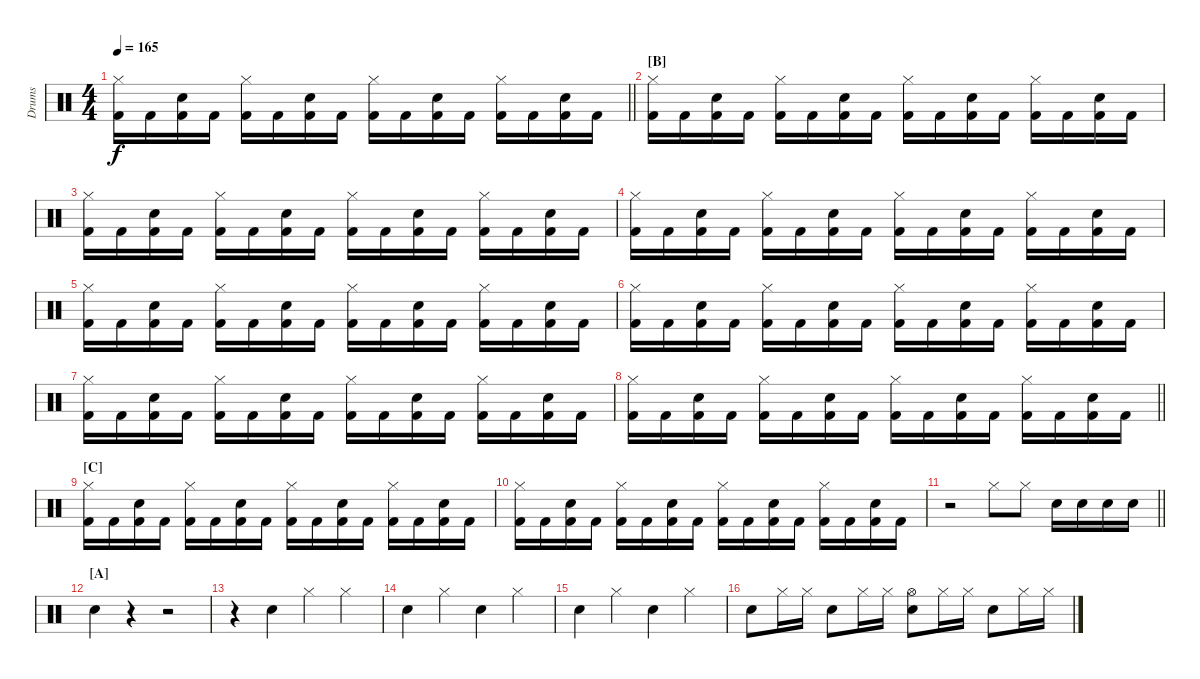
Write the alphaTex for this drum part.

\track ("Drums" "Drums") {instrument percussion}
\staff {score}
\articulation defaults
\ts (4 4)
\tempo 165
\clef neutral
\barLineRight lightlight
\ks c
("Hi-Hat (closed)" "Kick (hit) 2").16{dy f} "Kick (hit) 2".16 ("Electric Snare (hit)" "Kick (hit) 2").16 "Kick (hit) 2".16 ("Hi-Hat (closed)" "Kick (hit) 2").16 "Kick (hit) 2".16 ("Electric Snare (hit)" "Kick (hit) 2").16 "Kick (hit) 2".16 ("Hi-Hat (closed)" "Kick (hit) 2").16 "Kick (hit) 2".16 ("Electric Snare (hit)" "Kick (hit) 2").16 "Kick (hit) 2".16 ("Hi-Hat (closed)" "Kick (hit) 2").16 "Kick (hit) 2".16 ("Electric Snare (hit)" "Kick (hit) 2").16 "Kick (hit) 2".16 |
\section ("" "[B]")
("Hi-Hat (closed)" "Kick (hit) 2").16 "Kick (hit) 2".16 ("Electric Snare (hit)" "Kick (hit) 2").16 "Kick (hit) 2".16 ("Hi-Hat (closed)" "Kick (hit) 2").16 "Kick (hit) 2".16 ("Electric Snare (hit)" "Kick (hit) 2").16 "Kick (hit) 2".16 ("Hi-Hat (closed)" "Kick (hit) 2").16 "Kick (hit) 2".16 ("Electric Snare (hit)" "Kick (hit) 2").16 "Kick (hit) 2".16 ("Hi-Hat (closed)" "Kick (hit) 2").16 "Kick (hit) 2".16 ("Electric Snare (hit)" "Kick (hit) 2").16 "Kick (hit) 2".16 |
("Hi-Hat (closed)" "Kick (hit) 2").16 "Kick (hit) 2".16 ("Electric Snare (hit)" "Kick (hit) 2").16 "Kick (hit) 2".16 ("Hi-Hat (closed)" "Kick (hit) 2").16 "Kick (hit) 2".16 ("Electric Snare (hit)" "Kick (hit) 2").16 "Kick (hit) 2".16 ("Hi-Hat (closed)" "Kick (hit) 2").16 "Kick (hit) 2".16 ("Electric Snare (hit)" "Kick (hit) 2").16 "Kick (hit) 2".16 ("Hi-Hat (closed)" "Kick (hit) 2").16 "Kick (hit) 2".16 ("Electric Snare (hit)" "Kick (hit) 2").16 "Kick (hit) 2".16 |
("Hi-Hat (closed)" "Kick (hit) 2").16 "Kick (hit) 2".16 ("Electric Snare (hit)" "Kick (hit) 2").16 "Kick (hit) 2".16 ("Hi-Hat (closed)" "Kick (hit) 2").16 "Kick (hit) 2".16 ("Electric Snare (hit)" "Kick (hit) 2").16 "Kick (hit) 2".16 ("Hi-Hat (closed)" "Kick (hit) 2").16 "Kick (hit) 2".16 ("Electric Snare (hit)" "Kick (hit) 2").16 "Kick (hit) 2".16 ("Hi-Hat (closed)" "Kick (hit) 2").16 "Kick (hit) 2".16 ("Electric Snare (hit)" "Kick (hit) 2").16 "Kick (hit) 2".16 |
("Hi-Hat (closed)" "Kick (hit) 2").16 "Kick (hit) 2".16 ("Electric Snare (hit)" "Kick (hit) 2").16 "Kick (hit) 2".16 ("Hi-Hat (closed)" "Kick (hit) 2").16 "Kick (hit) 2".16 ("Electric Snare (hit)" "Kick (hit) 2").16 "Kick (hit) 2".16 ("Hi-Hat (closed)" "Kick (hit) 2").16 "Kick (hit) 2".16 ("Electric Snare (hit)" "Kick (hit) 2").16 "Kick (hit) 2".16 ("Hi-Hat (closed)" "Kick (hit) 2").16 "Kick (hit) 2".16 ("Electric Snare (hit)" "Kick (hit) 2").16 "Kick (hit) 2".16 |
("Hi-Hat (closed)" "Kick (hit) 2").16 "Kick (hit) 2".16 ("Electric Snare (hit)" "Kick (hit) 2").16 "Kick (hit) 2".16 ("Hi-Hat (closed)" "Kick (hit) 2").16 "Kick (hit) 2".16 ("Electric Snare (hit)" "Kick (hit) 2").16 "Kick (hit) 2".16 ("Hi-Hat (closed)" "Kick (hit) 2").16 "Kick (hit) 2".16 ("Electric Snare (hit)" "Kick (hit) 2").16 "Kick (hit) 2".16 ("Hi-Hat (closed)" "Kick (hit) 2").16 "Kick (hit) 2".16 ("Electric Snare (hit)" "Kick (hit) 2").16 "Kick (hit) 2".16 |
("Hi-Hat (closed)" "Kick (hit) 2").16 "Kick (hit) 2".16 ("Electric Snare (hit)" "Kick (hit) 2").16 "Kick (hit) 2".16 ("Hi-Hat (closed)" "Kick (hit) 2").16 "Kick (hit) 2".16 ("Electric Snare (hit)" "Kick (hit) 2").16 "Kick (hit) 2".16 ("Hi-Hat (closed)" "Kick (hit) 2").16 "Kick (hit) 2".16 ("Electric Snare (hit)" "Kick (hit) 2").16 "Kick (hit) 2".16 ("Hi-Hat (closed)" "Kick (hit) 2").16 "Kick (hit) 2".16 ("Electric Snare (hit)" "Kick (hit) 2").16 "Kick (hit) 2".16 |
\barLineRight lightlight
("Hi-Hat (closed)" "Kick (hit) 2").16 "Kick (hit) 2".16 ("Electric Snare (hit)" "Kick (hit) 2").16 "Kick (hit) 2".16 ("Hi-Hat (closed)" "Kick (hit) 2").16 "Kick (hit) 2".16 ("Electric Snare (hit)" "Kick (hit) 2").16 "Kick (hit) 2".16 ("Hi-Hat (closed)" "Kick (hit) 2").16 "Kick (hit) 2".16 ("Electric Snare (hit)" "Kick (hit) 2").16 "Kick (hit) 2".16 ("Hi-Hat (closed)" "Kick (hit) 2").16 "Kick (hit) 2".16 ("Electric Snare (hit)" "Kick (hit) 2").16 "Kick (hit) 2".16 |
\section ("" "[C]")
("Hi-Hat (closed)" "Kick (hit) 2").16 "Kick (hit) 2".16 ("Electric Snare (hit)" "Kick (hit) 2").16 "Kick (hit) 2".16 ("Hi-Hat (closed)" "Kick (hit) 2").16 "Kick (hit) 2".16 ("Electric Snare (hit)" "Kick (hit) 2").16 "Kick (hit) 2".16 ("Hi-Hat (closed)" "Kick (hit) 2").16 "Kick (hit) 2".16 ("Electric Snare (hit)" "Kick (hit) 2").16 "Kick (hit) 2".16 ("Hi-Hat (closed)" "Kick (hit) 2").16 "Kick (hit) 2".16 ("Electric Snare (hit)" "Kick (hit) 2").16 "Kick (hit) 2".16 |
("Hi-Hat (closed)" "Kick (hit) 2").16 "Kick (hit) 2".16 ("Electric Snare (hit)" "Kick (hit) 2").16 "Kick (hit) 2".16 ("Hi-Hat (closed)" "Kick (hit) 2").16 "Kick (hit) 2".16 ("Electric Snare (hit)" "Kick (hit) 2").16 "Kick (hit) 2".16 ("Hi-Hat (closed)" "Kick (hit) 2").16 "Kick (hit) 2".16 ("Electric Snare (hit)" "Kick (hit) 2").16 "Kick (hit) 2".16 ("Hi-Hat (closed)" "Kick (hit) 2").16 "Kick (hit) 2".16 ("Electric Snare (hit)" "Kick (hit) 2").16 "Kick (hit) 2".16 |
\barLineRight lightlight
r.2 "Hi-Hat (closed)".8 "Hi-Hat (closed)".8 "Electric Snare (hit)".16 "Electric Snare (hit)".16 "Electric Snare (hit)".16 "Electric Snare (hit)".16 |
\section ("" "[A]")
"Electric Snare (hit)".4 r.4 r.2 |
r.4 "Electric Snare (hit)".4 "Hi-Hat (closed)".4 "Hi-Hat (closed)".4 |
"Electric Snare (hit)".4 "Hi-Hat (closed)".4 "Electric Snare (hit)".4 "Hi-Hat (closed)".4 |
"Electric Snare (hit)".4 "Hi-Hat (closed)".4 "Electric Snare (hit)".4 "Hi-Hat (closed)".4 |
"Electric Snare (hit)".8 "Hi-Hat (closed)".16 "Hi-Hat (closed)".16 "Electric Snare (hit)".8 "Hi-Hat (closed)".16 "Hi-Hat (closed)".16 ("Hi-Hat (open)" "Electric Snare (hit)").8 "Hi-Hat (closed)".16 "Hi-Hat (closed)".16 "Electric Snare (hit)".8 "Hi-Hat (closed)".16 "Hi-Hat (closed)".16
